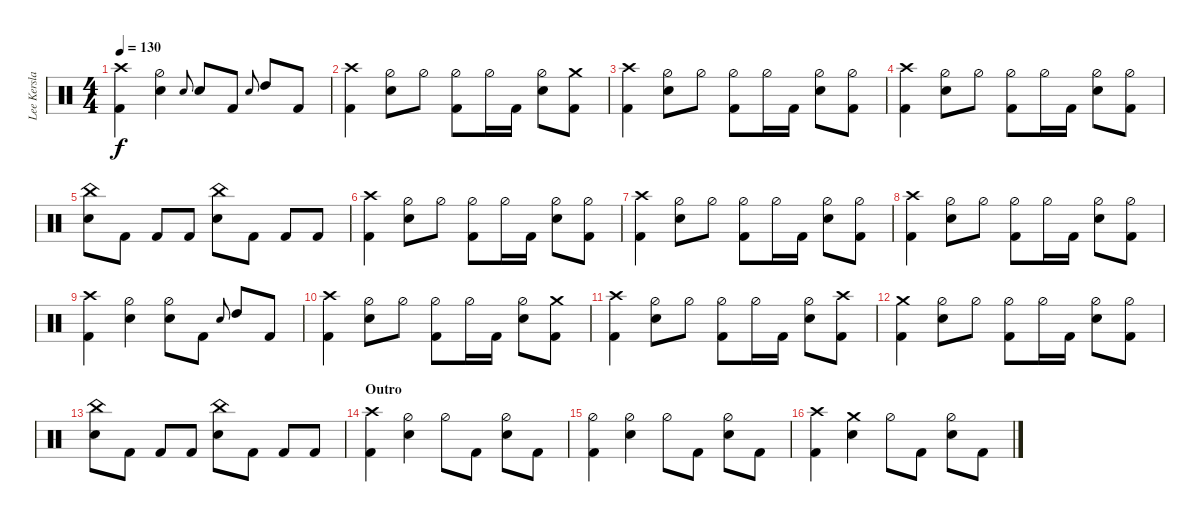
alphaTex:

\track ("Lee Kerslake" "Lee Kersla") {instrument percussion}
\staff {score}
\articulation defaults
\ts (4 4)
\tempo 130
\clef neutral
\ks c
("Kick (hit) 2" "Crash high (hit)").4{dy f} ("Snare (hit) 2" "Hi-Hat (half)").4 "Snare (hit)".8{gr onbeat} "Snare (hit) 2".8 "Kick (hit) 2".8 "Snare (hit)".8{gr onbeat} "High Tom (hit)".8 "Kick (hit) 2".8 |
("Kick (hit) 2" "Crash high (hit)").4 ("Snare (hit) 2" "Hi-Hat (half)").8 "Hi-Hat (half)".8 ("Kick (hit) 2" "Hi-Hat (half)").8 "Hi-Hat (half)".16 "Kick (hit) 2".16 ("Snare (hit) 2" "Hi-Hat (half)").8 ("Kick (hit) 2" "Crash medium (hit)").8 |
("Kick (hit) 2" "Crash high (hit)").4 ("Snare (hit) 2" "Hi-Hat (half)").8 "Hi-Hat (half)".8 ("Kick (hit) 2" "Hi-Hat (half)").8 "Hi-Hat (half)".16 "Kick (hit) 2".16 ("Snare (hit) 2" "Hi-Hat (half)").8 ("Kick (hit) 2" "Hi-Hat (half)").8 |
("Kick (hit) 2" "Crash high (hit)").4 ("Snare (hit) 2" "Hi-Hat (half)").8 "Hi-Hat (half)".8 ("Kick (hit) 2" "Hi-Hat (half)").8 "Hi-Hat (half)".16 "Kick (hit) 2".16 ("Snare (hit) 2" "Hi-Hat (half)").8 ("Kick (hit) 2" "Hi-Hat (half)").8 |
("Snare (hit) 2" "China (hit)").8 "Kick (hit) 2".8 "Kick (hit) 2".8 "Kick (hit) 2".8 ("Snare (hit) 2" "China (hit)").8 "Kick (hit) 2".8 "Kick (hit) 2".8 "Kick (hit) 2".8 |
("Kick (hit) 2" "Crash high (hit)").4 ("Snare (hit) 2" "Hi-Hat (half)").8 "Hi-Hat (half)".8 ("Kick (hit) 2" "Hi-Hat (half)").8 "Hi-Hat (half)".16 "Kick (hit) 2".16 ("Snare (hit) 2" "Hi-Hat (half)").8 ("Kick (hit) 2" "Hi-Hat (half)").8 |
("Kick (hit) 2" "Crash high (hit)").4 ("Snare (hit) 2" "Hi-Hat (half)").8 "Hi-Hat (half)".8 ("Kick (hit) 2" "Hi-Hat (half)").8 "Hi-Hat (half)".16 "Kick (hit) 2".16 ("Snare (hit) 2" "Hi-Hat (half)").8 ("Kick (hit) 2" "Hi-Hat (half)").8 |
("Kick (hit) 2" "Crash high (hit)").4 ("Snare (hit) 2" "Hi-Hat (half)").8 "Hi-Hat (half)".8 ("Kick (hit) 2" "Hi-Hat (half)").8 "Hi-Hat (half)".16 "Kick (hit) 2".16 ("Snare (hit) 2" "Hi-Hat (half)").8 ("Kick (hit) 2" "Hi-Hat (half)").8 |
("Kick (hit) 2" "Crash high (hit)").4 ("Snare (hit) 2" "Hi-Hat (half)").4 ("Snare (hit) 2" "Hi-Hat (half)").8 "Kick (hit) 2".8 "Snare (hit)".8{gr onbeat} "High Tom (hit)".8 "Kick (hit) 2".8 |
("Kick (hit) 2" "Crash high (hit)").4 ("Snare (hit) 2" "Hi-Hat (half)").8 "Hi-Hat (half)".8 ("Kick (hit) 2" "Hi-Hat (half)").8 "Hi-Hat (half)".16 "Kick (hit) 2".16 ("Snare (hit) 2" "Hi-Hat (half)").8 ("Kick (hit) 2" "Crash medium (hit)").8 |
("Kick (hit) 2" "Crash high (hit)").4 ("Snare (hit) 2" "Hi-Hat (half)").8 "Hi-Hat (half)".8 ("Kick (hit) 2" "Hi-Hat (half)").8 "Hi-Hat (half)".16 "Kick (hit) 2".16 ("Snare (hit) 2" "Hi-Hat (half)").8 ("Kick (hit) 2" "Crash high (hit)").8 |
("Kick (hit) 2" "Crash medium (hit)").4 ("Snare (hit) 2" "Hi-Hat (half)").8 "Hi-Hat (half)".8 ("Kick (hit) 2" "Hi-Hat (half)").8 "Hi-Hat (half)".16 "Kick (hit) 2".16 ("Snare (hit) 2" "Hi-Hat (half)").8 ("Kick (hit) 2" "Hi-Hat (half)").8 |
("Snare (hit) 2" "China (hit)").8 "Kick (hit) 2".8 "Kick (hit) 2".8 "Kick (hit) 2".8 ("Snare (hit) 2" "China (hit)").8 "Kick (hit) 2".8 "Kick (hit) 2".8 "Kick (hit) 2".8 |
\section ("" "Outro")
("Kick (hit) 2" "Crash high (hit)").4 ("Snare (hit) 2" "Hi-Hat (half)").4 "Hi-Hat (half)".8 "Kick (hit) 2".8 ("Snare (hit) 2" "Hi-Hat (half)").8 "Kick (hit) 2".8 |
("Kick (hit) 2" "Hi-Hat (half)").4 ("Snare (hit) 2" "Hi-Hat (half)").4 "Hi-Hat (half)".8 "Kick (hit) 2".8 ("Snare (hit) 2" "Hi-Hat (half)").8 "Kick (hit) 2".8 |
("Kick (hit) 2" "Crash high (hit)").4 ("Snare (hit) 2" "Crash medium (hit)").4 "Hi-Hat (half)".8 "Kick (hit) 2".8 ("Snare (hit) 2" "Hi-Hat (half)").8 "Kick (hit) 2".8
